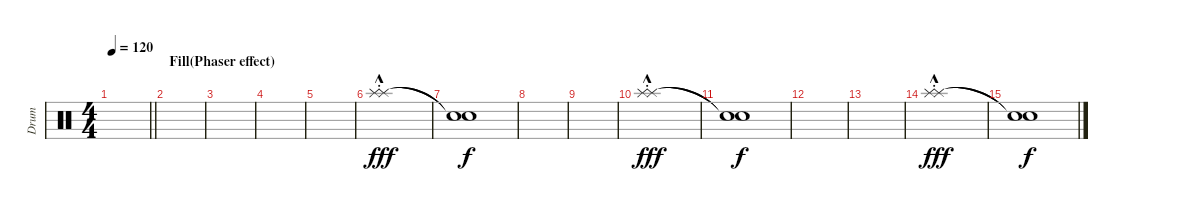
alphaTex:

\track ("Drum" "Drum") {instrument percussion}
\staff {score}
\articulation defaults
\ts (4 4)
\tempo 120
\clef neutral
\barLineRight lightlight
\ks c
|
\section ("" "Fill(Phaser effect)")
|
|
|
|
("Splash (hit)"{hac st} "Splash (hit)"{hac}).1{dy fff volume 16} |
("Snare (hit)"{t} "Snare (hit)"{t}).1{dy f} |
|
|
("Splash (hit)"{hac st} "Splash (hit)"{hac}).1{dy fff volume 16} |
("Snare (hit)"{t} "Snare (hit)"{t}).1{dy f} |
|
|
("Splash (hit)"{hac st} "Splash (hit)"{hac}).1{dy fff volume 16} |
("Snare (hit)"{t} "Snare (hit)"{t}).1{dy f}
